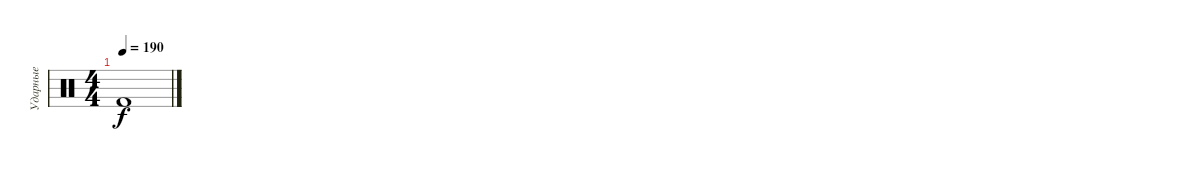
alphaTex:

\track ("Ударные" "Ударные") {instrument percussion}
\staff {score}
\articulation defaults
\ts (4 4)
\tempo 190
\clef neutral
\ks c "Kick (hit) 2".1{dy f}
